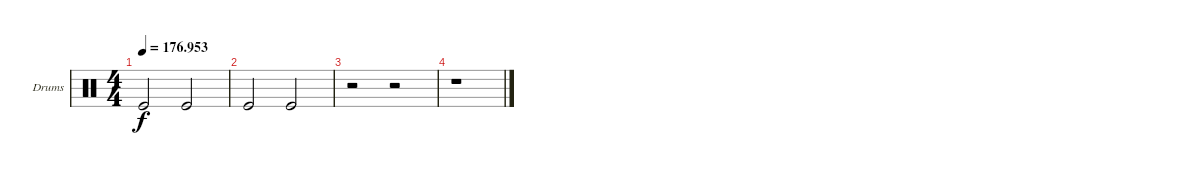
\defaultSystemsLayout 4
\bracketExtendMode groupsimilarinstruments
\firstSystemTrackNameOrientation horizontal
\otherSystemsTrackNameOrientation horizontal
\track ("Flake" "Drums") {instrument percussion}
\staff {score}
\articulation defaults
\ts (4 4)
\tempo
176.953
\accidentals auto
\clef neutral
\ottava regular
\simile none
\ks c "Kick (hit)".2{dy f} "Kick (hit)".2
|
"Kick (hit)".2 "Kick (hit)".2 |
r.2 r.2 |
r.1
